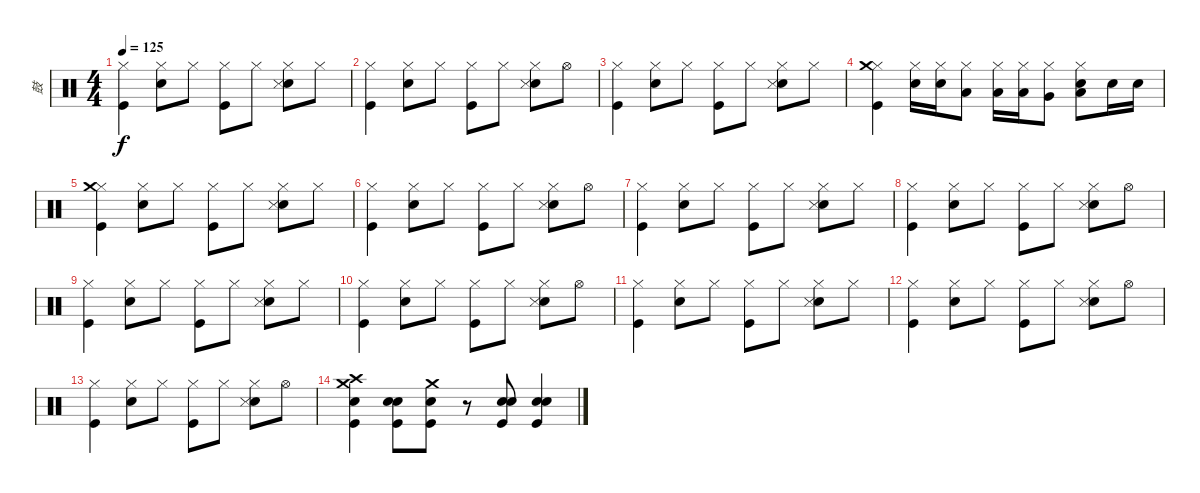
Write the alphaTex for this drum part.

\track ("鼓" "鼓") {instrument percussion}
\staff {score}
\articulation defaults
\ts (4 4)
\tempo 125
\clef neutral
\ks c
("Kick (hit)" "Hi-Hat (closed)").4{dy f} ("Hi-Hat (closed)" "Electric Snare (hit)").8 "Hi-Hat (closed)".8 ("Kick (hit)" "Hi-Hat (closed)").8 "Hi-Hat (closed)".8 ("Hi-Hat (closed)" "Electric Snare (hit)" "Snare (side stick) 3").8 "Hi-Hat (closed)".8 |
("Kick (hit)" "Hi-Hat (closed)").4 ("Hi-Hat (closed)" "Electric Snare (hit)").8 "Hi-Hat (closed)".8 ("Kick (hit)" "Hi-Hat (closed)").8 "Hi-Hat (closed)".8 ("Hi-Hat (closed)" "Electric Snare (hit)" "Snare (side stick) 3").8 "Hi-Hat (open)".8 |
("Kick (hit)" "Hi-Hat (closed)").4 ("Hi-Hat (closed)" "Electric Snare (hit)").8 "Hi-Hat (closed)".8 ("Kick (hit)" "Hi-Hat (closed)").8 "Hi-Hat (closed)".8 ("Hi-Hat (closed)" "Electric Snare (hit)" "Snare (side stick) 3").8 "Hi-Hat (closed)".8 |
("Kick (hit)" "Hi-Hat (closed)" "Crash medium (hit)").4 ("Hi-Hat (closed)" "Electric Snare (hit)").16 ("Hi-Hat (closed)" "Electric Snare (hit)").16 ("Hi-Hat (closed)" "Low Tom (hit)").8 ("Hi-Hat (closed)" "Low Tom (hit)").16 ("Hi-Hat (closed)" "Low Tom (hit)").16 ("Hi-Hat (closed)" "Very Low Tom (hit)").8 ("Electric Snare (hit)" "Hi-Hat (closed)" "Low Floor Tom (hit)").8 "Electric Snare (hit)".16 "Electric Snare (hit)".16 |
("Kick (hit)" "Hi-Hat (closed)" "Crash medium (hit)").4 ("Hi-Hat (closed)" "Electric Snare (hit)").8 "Hi-Hat (closed)".8 ("Kick (hit)" "Hi-Hat (closed)").8 "Hi-Hat (closed)".8 ("Hi-Hat (closed)" "Electric Snare (hit)" "Snare (side stick) 3").8 "Hi-Hat (closed)".8 |
("Kick (hit)" "Hi-Hat (closed)").4 ("Hi-Hat (closed)" "Electric Snare (hit)").8 "Hi-Hat (closed)".8 ("Kick (hit)" "Hi-Hat (closed)").8 "Hi-Hat (closed)".8 ("Hi-Hat (closed)" "Electric Snare (hit)" "Snare (side stick) 3").8 "Hi-Hat (open)".8 |
("Kick (hit)" "Hi-Hat (closed)").4 ("Hi-Hat (closed)" "Electric Snare (hit)").8 "Hi-Hat (closed)".8 ("Kick (hit)" "Hi-Hat (closed)").8 "Hi-Hat (closed)".8 ("Hi-Hat (closed)" "Electric Snare (hit)" "Snare (side stick) 3").8 "Hi-Hat (closed)".8 |
("Kick (hit)" "Hi-Hat (closed)").4 ("Hi-Hat (closed)" "Electric Snare (hit)").8 "Hi-Hat (closed)".8 ("Kick (hit)" "Hi-Hat (closed)").8 "Hi-Hat (closed)".8 ("Hi-Hat (closed)" "Electric Snare (hit)" "Snare (side stick) 3").8 "Hi-Hat (open)".8 |
("Kick (hit)" "Hi-Hat (closed)").4 ("Hi-Hat (closed)" "Electric Snare (hit)").8 "Hi-Hat (closed)".8 ("Kick (hit)" "Hi-Hat (closed)").8 "Hi-Hat (closed)".8 ("Hi-Hat (closed)" "Electric Snare (hit)" "Snare (side stick) 3").8 "Hi-Hat (closed)".8 |
("Kick (hit)" "Hi-Hat (closed)").4 ("Hi-Hat (closed)" "Electric Snare (hit)").8 "Hi-Hat (closed)".8 ("Kick (hit)" "Hi-Hat (closed)").8 "Hi-Hat (closed)".8 ("Hi-Hat (closed)" "Electric Snare (hit)" "Snare (side stick) 3").8 "Hi-Hat (open)".8 |
("Kick (hit)" "Hi-Hat (closed)").4 ("Hi-Hat (closed)" "Electric Snare (hit)").8 "Hi-Hat (closed)".8 ("Kick (hit)" "Hi-Hat (closed)").8 "Hi-Hat (closed)".8 ("Hi-Hat (closed)" "Electric Snare (hit)" "Snare (side stick) 3").8 "Hi-Hat (closed)".8 |
("Kick (hit)" "Hi-Hat (closed)").4 ("Hi-Hat (closed)" "Electric Snare (hit)").8 "Hi-Hat (closed)".8 ("Kick (hit)" "Hi-Hat (closed)").8 "Hi-Hat (closed)".8 ("Hi-Hat (closed)" "Electric Snare (hit)" "Snare (side stick) 3").8 "Hi-Hat (open)".8 |
("Kick (hit)" "Hi-Hat (closed)").4 ("Hi-Hat (closed)" "Electric Snare (hit)").8 "Hi-Hat (closed)".8 ("Kick (hit)" "Hi-Hat (closed)").8 "Hi-Hat (closed)".8 ("Hi-Hat (closed)" "Electric Snare (hit)" "Snare (side stick) 3").8 "Hi-Hat (open)".8 |
("Crash medium (hit)" "Crash high (hit)" "Kick (hit)" "Electric Snare (hit)").4 ("Snare (hit) 2" "Kick (hit)" "Electric Snare (hit)").8 ("Crash medium (hit)" "Electric Snare (hit)" "Kick (hit)").8 r.8 ("Electric Snare (hit)" "Kick (hit)" "Snare (hit) 2").8 ("Electric Snare (hit)" "Kick (hit)" "Snare (hit) 2").4
